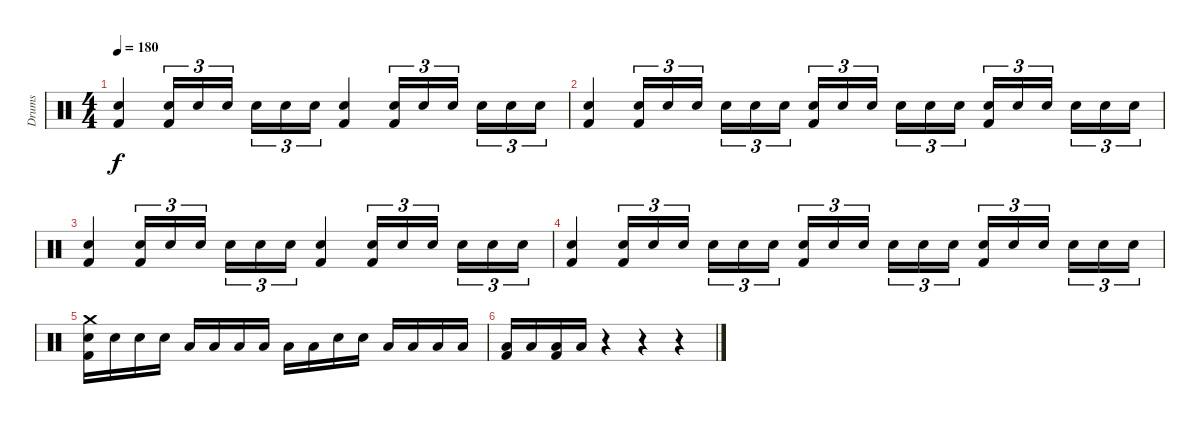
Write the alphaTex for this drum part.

\track ("Drums" "Drums") {instrument percussion}
\staff {score}
\articulation defaults
\ts (4 4)
\tempo 180
\clef neutral
\ks c
("Kick (hit) 2" "Electric Snare (hit)").4{dy f} ("Kick (hit) 2" "Electric Snare (hit)").16{tu (3 2)} "Electric Snare (hit)".16{tu (3 2)} "Electric Snare (hit)".16{tu (3 2)} "Electric Snare (hit)".16{tu (3 2)} "Electric Snare (hit)".16{tu (3 2)} "Electric Snare (hit)".16{tu (3 2)} ("Kick (hit) 2" "Electric Snare (hit)").4 ("Kick (hit) 2" "Electric Snare (hit)").16{tu (3 2)} "Electric Snare (hit)".16{tu (3 2)} "Electric Snare (hit)".16{tu (3 2)} "Electric Snare (hit)".16{tu (3 2)} "Electric Snare (hit)".16{tu (3 2)} "Electric Snare (hit)".16{tu (3 2)} |
("Kick (hit) 2" "Electric Snare (hit)").4 ("Kick (hit) 2" "Electric Snare (hit)").16{tu (3 2)} "Electric Snare (hit)".16{tu (3 2)} "Electric Snare (hit)".16{tu (3 2)} "Electric Snare (hit)".16{tu (3 2)} "Electric Snare (hit)".16{tu (3 2)} "Electric Snare (hit)".16{tu (3 2)} ("Kick (hit) 2" "Electric Snare (hit)").16{tu (3 2)} "Electric Snare (hit)".16{tu (3 2)} "Electric Snare (hit)".16{tu (3 2)} "Electric Snare (hit)".16{tu (3 2)} "Electric Snare (hit)".16{tu (3 2)} "Electric Snare (hit)".16{tu (3 2)} ("Kick (hit) 2" "Electric Snare (hit)").16{tu (3 2)} "Electric Snare (hit)".16{tu (3 2)} "Electric Snare (hit)".16{tu (3 2)} "Electric Snare (hit)".16{tu (3 2)} "Electric Snare (hit)".16{tu (3 2)} "Electric Snare (hit)".16{tu (3 2)} |
("Kick (hit) 2" "Electric Snare (hit)").4 ("Kick (hit) 2" "Electric Snare (hit)").16{tu (3 2)} "Electric Snare (hit)".16{tu (3 2)} "Electric Snare (hit)".16{tu (3 2)} "Electric Snare (hit)".16{tu (3 2)} "Electric Snare (hit)".16{tu (3 2)} "Electric Snare (hit)".16{tu (3 2)} ("Kick (hit) 2" "Electric Snare (hit)").4 ("Kick (hit) 2" "Electric Snare (hit)").16{tu (3 2)} "Electric Snare (hit)".16{tu (3 2)} "Electric Snare (hit)".16{tu (3 2)} "Electric Snare (hit)".16{tu (3 2)} "Electric Snare (hit)".16{tu (3 2)} "Electric Snare (hit)".16{tu (3 2)} |
("Kick (hit) 2" "Electric Snare (hit)").4 ("Kick (hit) 2" "Electric Snare (hit)").16{tu (3 2)} "Electric Snare (hit)".16{tu (3 2)} "Electric Snare (hit)".16{tu (3 2)} "Electric Snare (hit)".16{tu (3 2)} "Electric Snare (hit)".16{tu (3 2)} "Electric Snare (hit)".16{tu (3 2)} ("Kick (hit) 2" "Electric Snare (hit)").16{tu (3 2)} "Electric Snare (hit)".16{tu (3 2)} "Electric Snare (hit)".16{tu (3 2)} "Electric Snare (hit)".16{tu (3 2)} "Electric Snare (hit)".16{tu (3 2)} "Electric Snare (hit)".16{tu (3 2)} ("Kick (hit) 2" "Electric Snare (hit)").16{tu (3 2)} "Electric Snare (hit)".16{tu (3 2)} "Electric Snare (hit)".16{tu (3 2)} "Electric Snare (hit)".16{tu (3 2)} "Electric Snare (hit)".16{tu (3 2)} "Electric Snare (hit)".16{tu (3 2)} |
("Kick (hit) 2" "Electric Snare (hit)" "Crash medium (hit)").16 "Electric Snare (hit)".16 "Electric Snare (hit)".16 "Electric Snare (hit)".16 "Low Tom (hit)".16 "Low Tom (hit)".16 "Low Tom (hit)".16 "Low Tom (hit)".16 "Low Tom (hit)".16 "Low Tom (hit)".16 "Electric Snare (hit)".16 "Electric Snare (hit)".16 "Low Tom (hit)".16 "Low Tom (hit)".16 "Low Tom (hit)".16 "Low Tom (hit)".16 |
("Low Tom (hit)" "Kick (hit) 2").16 "Low Tom (hit)".16 ("Low Tom (hit)" "Kick (hit) 2").16 "Low Tom (hit)".16 r.4 r.4 r.4
